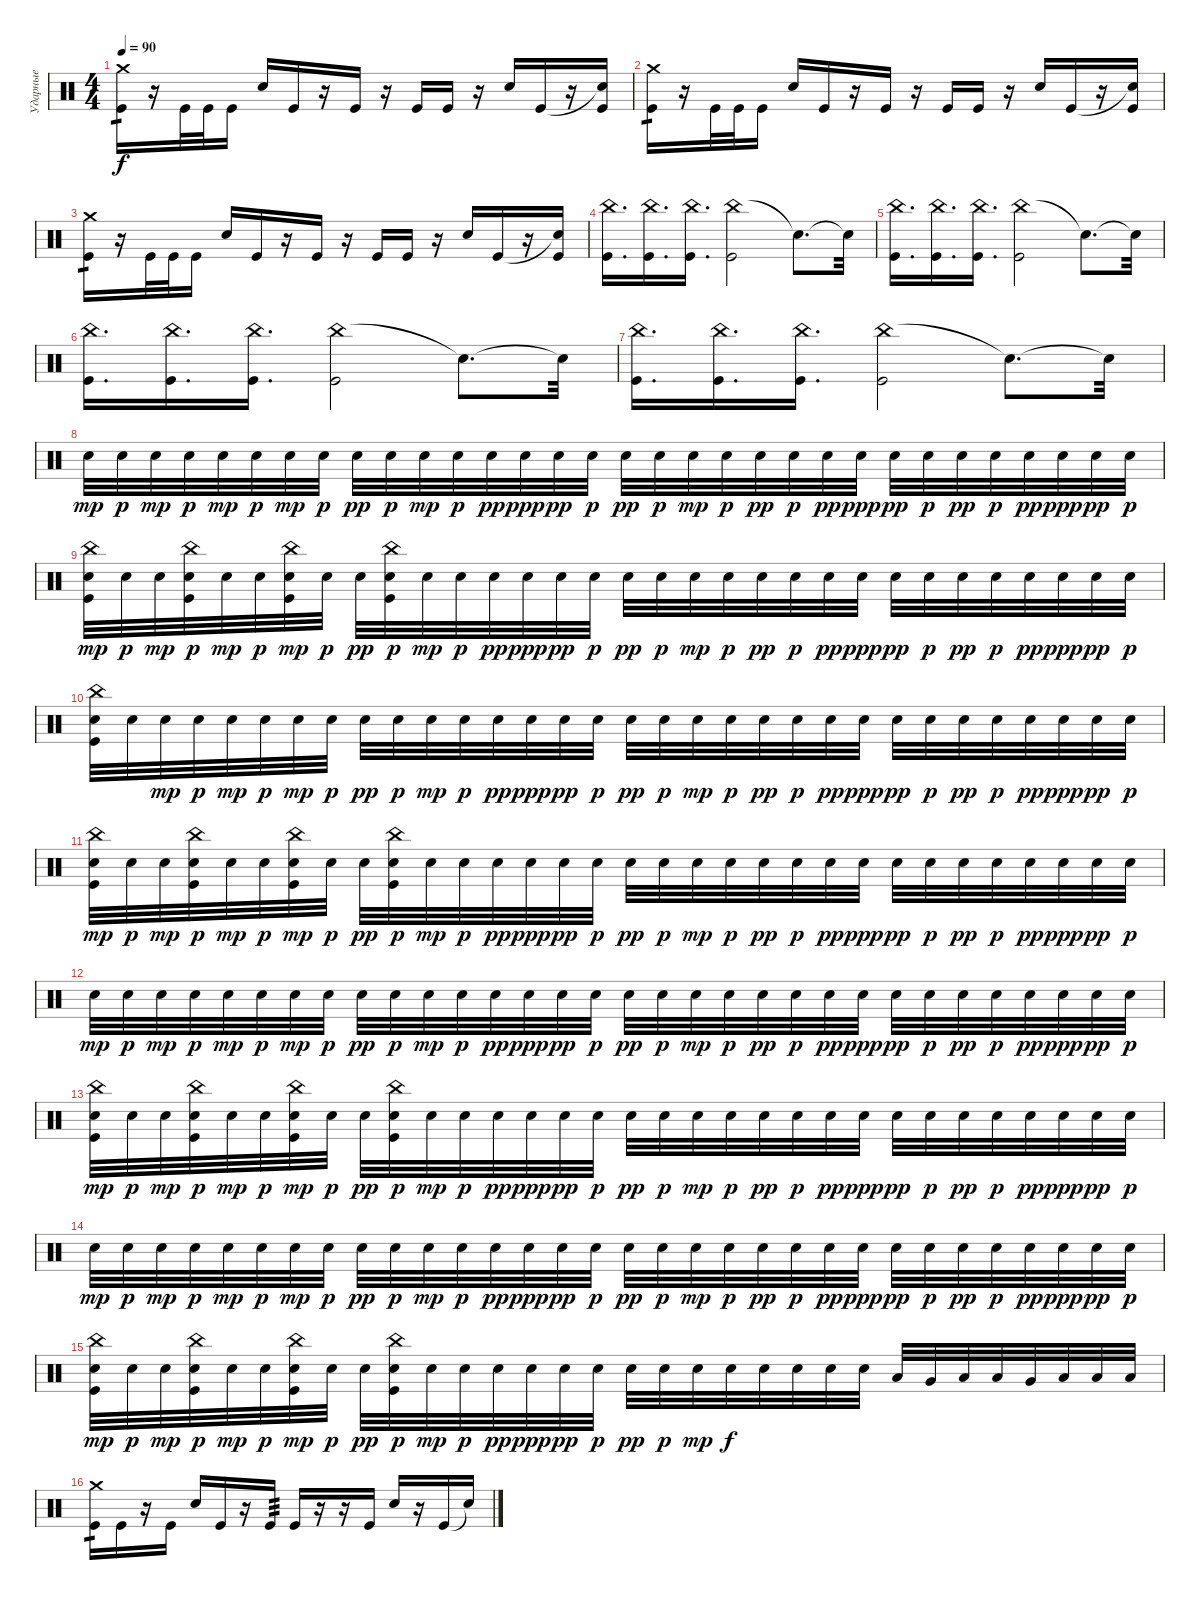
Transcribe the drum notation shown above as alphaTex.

\track ("Ударные" "Ударные") {instrument percussion}
\staff {score}
\articulation defaults
\ts (4 4)
\tempo 90
\clef neutral
\ks c
("Crash medium (hit)" "Kick (hit)").16{tp 1 dy f} r.16 "Kick (hit)".32 "Kick (hit)".32 "Kick (hit)".16 "Electric Snare (hit)".16 "Kick (hit)".16 r.16 "Kick (hit)".16 r.16 "Kick (hit)".16 "Kick (hit)".16 r.16 "Electric Snare (hit)".16 "Kick (hit)".16 r.16 ("Snare (hit)"{t} "Kick (hit)").16 |
("Crash medium (hit)" "Kick (hit)").16{tp 1} r.16 "Kick (hit)".32 "Kick (hit)".32 "Kick (hit)".16 "Electric Snare (hit)".16 "Kick (hit)".16 r.16 "Kick (hit)".16 r.16 "Kick (hit)".16 "Kick (hit)".16 r.16 "Electric Snare (hit)".16 "Kick (hit)".16 r.16 ("Snare (hit)"{t} "Kick (hit)").16 |
("Crash medium (hit)" "Kick (hit)").16{tp 1} r.16 "Kick (hit)".32 "Kick (hit)".32 "Kick (hit)".16 "Electric Snare (hit)".16 "Kick (hit)".16 r.16 "Kick (hit)".16 r.16 "Kick (hit)".16 "Kick (hit)".16 r.16 "Electric Snare (hit)".16 "Kick (hit)".16 r.16 ("Snare (hit)"{t} "Kick (hit)").16 |
("China (hit)" "Kick (hit)").16{d} ("China (hit)" "Kick (hit)").16{d} ("China (hit)" "Kick (hit)").16{d} ("China (hit)" "Kick (hit)").2 "Snare (hit)"{t}.8{d} "Snare (hit)"{t}.32 |
("China (hit)" "Kick (hit)").16{d} ("China (hit)" "Kick (hit)").16{d} ("China (hit)" "Kick (hit)").16{d} ("China (hit)" "Kick (hit)").2 "Snare (hit)"{t}.8{d} "Snare (hit)"{t}.32 |
("China (hit)" "Kick (hit)").16{d} ("China (hit)" "Kick (hit)").16{d} ("China (hit)" "Kick (hit)").16{d} ("China (hit)" "Kick (hit)").2 "Snare (hit)"{t}.8{d} "Snare (hit)"{t}.32 |
("China (hit)" "Kick (hit)").16{d} ("China (hit)" "Kick (hit)").16{d} ("China (hit)" "Kick (hit)").16{d} ("China (hit)" "Kick (hit)").2 "Snare (hit)"{t}.8{d} "Snare (hit)"{t}.32 |
"Electric Snare (hit)".32{dy mp} "Electric Snare (hit)".32{dy p} "Electric Snare (hit)".32{dy mp} "Electric Snare (hit)".32{dy p} "Electric Snare (hit)".32{dy mp} "Electric Snare (hit)".32{dy p} "Electric Snare (hit)".32{dy mp} "Electric Snare (hit)".32{dy p} "Electric Snare (hit)".32{dy pp} "Electric Snare (hit)".32{dy p} "Electric Snare (hit)".32{dy mp} "Electric Snare (hit)".32{dy p} "Electric Snare (hit)".32{dy pp} "Electric Snare (hit)".32{dy ppp} "Electric Snare (hit)".32{dy pp} "Electric Snare (hit)".32{dy p} "Electric Snare (hit)".32{dy pp} "Electric Snare (hit)".32{dy p} "Electric Snare (hit)".32{dy mp} "Electric Snare (hit)".32{dy p} "Electric Snare (hit)".32{dy pp} "Electric Snare (hit)".32{dy p} "Electric Snare (hit)".32{dy pp} "Electric Snare (hit)".32{dy ppp} "Electric Snare (hit)".32{dy pp} "Electric Snare (hit)".32{dy p} "Electric Snare (hit)".32{dy pp} "Electric Snare (hit)".32{dy p} "Electric Snare (hit)".32{dy pp} "Electric Snare (hit)".32{dy ppp} "Electric Snare (hit)".32{dy pp} "Electric Snare (hit)".32{dy p} |
("China (hit)" "Electric Snare (hit)" "Kick (hit)").32{dy mp} "Electric Snare (hit)".32{dy p} "Electric Snare (hit)".32{dy mp} ("China (hit)" "Electric Snare (hit)" "Kick (hit)").32{dy p} "Electric Snare (hit)".32{dy mp} "Electric Snare (hit)".32{dy p} ("China (hit)" "Electric Snare (hit)" "Kick (hit)").32{dy mp} "Electric Snare (hit)".32{dy p} "Electric Snare (hit)".32{dy pp} ("China (hit)" "Electric Snare (hit)" "Kick (hit)").32{dy p} "Electric Snare (hit)".32{dy mp} "Electric Snare (hit)".32{dy p} "Electric Snare (hit)".32{dy pp} "Electric Snare (hit)".32{dy ppp} "Electric Snare (hit)".32{dy pp} "Electric Snare (hit)".32{dy p} "Electric Snare (hit)".32{dy pp} "Electric Snare (hit)".32{dy p} "Electric Snare (hit)".32{dy mp} "Electric Snare (hit)".32{dy p} "Electric Snare (hit)".32{dy pp} "Electric Snare (hit)".32{dy p} "Electric Snare (hit)".32{dy pp} "Electric Snare (hit)".32{dy ppp} "Electric Snare (hit)".32{dy pp} "Electric Snare (hit)".32{dy p} "Electric Snare (hit)".32{dy pp} "Electric Snare (hit)".32{dy p} "Electric Snare (hit)".32{dy pp} "Electric Snare (hit)".32{dy ppp} "Electric Snare (hit)".32{dy pp} "Electric Snare (hit)".32{dy p} |
("China (hit)" "Electric Snare (hit)" "Kick (hit)").32 "Electric Snare (hit)".32 "Electric Snare (hit)".32{dy mp} "Electric Snare (hit)".32{dy p} "Electric Snare (hit)".32{dy mp} "Electric Snare (hit)".32{dy p} "Electric Snare (hit)".32{dy mp} "Electric Snare (hit)".32{dy p} "Electric Snare (hit)".32{dy pp} "Electric Snare (hit)".32{dy p} "Electric Snare (hit)".32{dy mp} "Electric Snare (hit)".32{dy p} "Electric Snare (hit)".32{dy pp} "Electric Snare (hit)".32{dy ppp} "Electric Snare (hit)".32{dy pp} "Electric Snare (hit)".32{dy p} "Electric Snare (hit)".32{dy pp} "Electric Snare (hit)".32{dy p} "Electric Snare (hit)".32{dy mp} "Electric Snare (hit)".32{dy p} "Electric Snare (hit)".32{dy pp} "Electric Snare (hit)".32{dy p} "Electric Snare (hit)".32{dy pp} "Electric Snare (hit)".32{dy ppp} "Electric Snare (hit)".32{dy pp} "Electric Snare (hit)".32{dy p} "Electric Snare (hit)".32{dy pp} "Electric Snare (hit)".32{dy p} "Electric Snare (hit)".32{dy pp} "Electric Snare (hit)".32{dy ppp} "Electric Snare (hit)".32{dy pp} "Electric Snare (hit)".32{dy p} |
("China (hit)" "Electric Snare (hit)" "Kick (hit)").32{dy mp} "Electric Snare (hit)".32{dy p} "Electric Snare (hit)".32{dy mp} ("China (hit)" "Electric Snare (hit)" "Kick (hit)").32{dy p} "Electric Snare (hit)".32{dy mp} "Electric Snare (hit)".32{dy p} ("China (hit)" "Electric Snare (hit)" "Kick (hit)").32{dy mp} "Electric Snare (hit)".32{dy p} "Electric Snare (hit)".32{dy pp} ("China (hit)" "Electric Snare (hit)" "Kick (hit)").32{dy p} "Electric Snare (hit)".32{dy mp} "Electric Snare (hit)".32{dy p} "Electric Snare (hit)".32{dy pp} "Electric Snare (hit)".32{dy ppp} "Electric Snare (hit)".32{dy pp} "Electric Snare (hit)".32{dy p} "Electric Snare (hit)".32{dy pp} "Electric Snare (hit)".32{dy p} "Electric Snare (hit)".32{dy mp} "Electric Snare (hit)".32{dy p} "Electric Snare (hit)".32{dy pp} "Electric Snare (hit)".32{dy p} "Electric Snare (hit)".32{dy pp} "Electric Snare (hit)".32{dy ppp} "Electric Snare (hit)".32{dy pp} "Electric Snare (hit)".32{dy p} "Electric Snare (hit)".32{dy pp} "Electric Snare (hit)".32{dy p} "Electric Snare (hit)".32{dy pp} "Electric Snare (hit)".32{dy ppp} "Electric Snare (hit)".32{dy pp} "Electric Snare (hit)".32{dy p} |
"Electric Snare (hit)".32{dy mp} "Electric Snare (hit)".32{dy p} "Electric Snare (hit)".32{dy mp} "Electric Snare (hit)".32{dy p} "Electric Snare (hit)".32{dy mp} "Electric Snare (hit)".32{dy p} "Electric Snare (hit)".32{dy mp} "Electric Snare (hit)".32{dy p} "Electric Snare (hit)".32{dy pp} "Electric Snare (hit)".32{dy p} "Electric Snare (hit)".32{dy mp} "Electric Snare (hit)".32{dy p} "Electric Snare (hit)".32{dy pp} "Electric Snare (hit)".32{dy ppp} "Electric Snare (hit)".32{dy pp} "Electric Snare (hit)".32{dy p} "Electric Snare (hit)".32{dy pp} "Electric Snare (hit)".32{dy p} "Electric Snare (hit)".32{dy mp} "Electric Snare (hit)".32{dy p} "Electric Snare (hit)".32{dy pp} "Electric Snare (hit)".32{dy p} "Electric Snare (hit)".32{dy pp} "Electric Snare (hit)".32{dy ppp} "Electric Snare (hit)".32{dy pp} "Electric Snare (hit)".32{dy p} "Electric Snare (hit)".32{dy pp} "Electric Snare (hit)".32{dy p} "Electric Snare (hit)".32{dy pp} "Electric Snare (hit)".32{dy ppp} "Electric Snare (hit)".32{dy pp} "Electric Snare (hit)".32{dy p} |
("China (hit)" "Electric Snare (hit)" "Kick (hit)").32{dy mp} "Electric Snare (hit)".32{dy p} "Electric Snare (hit)".32{dy mp} ("China (hit)" "Electric Snare (hit)" "Kick (hit)").32{dy p} "Electric Snare (hit)".32{dy mp} "Electric Snare (hit)".32{dy p} ("China (hit)" "Electric Snare (hit)" "Kick (hit)").32{dy mp} "Electric Snare (hit)".32{dy p} "Electric Snare (hit)".32{dy pp} ("China (hit)" "Electric Snare (hit)" "Kick (hit)").32{dy p} "Electric Snare (hit)".32{dy mp} "Electric Snare (hit)".32{dy p} "Electric Snare (hit)".32{dy pp} "Electric Snare (hit)".32{dy ppp} "Electric Snare (hit)".32{dy pp} "Electric Snare (hit)".32{dy p} "Electric Snare (hit)".32{dy pp} "Electric Snare (hit)".32{dy p} "Electric Snare (hit)".32{dy mp} "Electric Snare (hit)".32{dy p} "Electric Snare (hit)".32{dy pp} "Electric Snare (hit)".32{dy p} "Electric Snare (hit)".32{dy pp} "Electric Snare (hit)".32{dy ppp} "Electric Snare (hit)".32{dy pp} "Electric Snare (hit)".32{dy p} "Electric Snare (hit)".32{dy pp} "Electric Snare (hit)".32{dy p} "Electric Snare (hit)".32{dy pp} "Electric Snare (hit)".32{dy ppp} "Electric Snare (hit)".32{dy pp} "Electric Snare (hit)".32{dy p} |
"Electric Snare (hit)".32{dy mp} "Electric Snare (hit)".32{dy p} "Electric Snare (hit)".32{dy mp} "Electric Snare (hit)".32{dy p} "Electric Snare (hit)".32{dy mp} "Electric Snare (hit)".32{dy p} "Electric Snare (hit)".32{dy mp} "Electric Snare (hit)".32{dy p} "Electric Snare (hit)".32{dy pp} "Electric Snare (hit)".32{dy p} "Electric Snare (hit)".32{dy mp} "Electric Snare (hit)".32{dy p} "Electric Snare (hit)".32{dy pp} "Electric Snare (hit)".32{dy ppp} "Electric Snare (hit)".32{dy pp} "Electric Snare (hit)".32{dy p} "Electric Snare (hit)".32{dy pp} "Electric Snare (hit)".32{dy p} "Electric Snare (hit)".32{dy mp} "Electric Snare (hit)".32{dy p} "Electric Snare (hit)".32{dy pp} "Electric Snare (hit)".32{dy p} "Electric Snare (hit)".32{dy pp} "Electric Snare (hit)".32{dy ppp} "Electric Snare (hit)".32{dy pp} "Electric Snare (hit)".32{dy p} "Electric Snare (hit)".32{dy pp} "Electric Snare (hit)".32{dy p} "Electric Snare (hit)".32{dy pp} "Electric Snare (hit)".32{dy ppp} "Electric Snare (hit)".32{dy pp} "Electric Snare (hit)".32{dy p} |
("China (hit)" "Electric Snare (hit)" "Kick (hit)").32{dy mp} "Electric Snare (hit)".32{dy p} "Electric Snare (hit)".32{dy mp} ("China (hit)" "Electric Snare (hit)" "Kick (hit)").32{dy p} "Electric Snare (hit)".32{dy mp} "Electric Snare (hit)".32{dy p} ("China (hit)" "Electric Snare (hit)" "Kick (hit)").32{dy mp} "Electric Snare (hit)".32{dy p} "Electric Snare (hit)".32{dy pp} ("China (hit)" "Electric Snare (hit)" "Kick (hit)").32{dy p} "Electric Snare (hit)".32{dy mp} "Electric Snare (hit)".32{dy p} "Electric Snare (hit)".32{dy pp} "Electric Snare (hit)".32{dy ppp} "Electric Snare (hit)".32{dy pp} "Electric Snare (hit)".32{dy p} "Electric Snare (hit)".32{dy pp} "Electric Snare (hit)".32{dy p} "Electric Snare (hit)".32{dy mp} "Electric Snare (hit)".32{dy f} "Electric Snare (hit)".32 "Electric Snare (hit)".32 "Electric Snare (hit)".32 "Electric Snare (hit)".32 "Low Tom (hit)".32 "Very Low Tom (hit)".32 "Low Floor Tom (hit)".32 "Low Tom (hit)".32 "Very Low Tom (hit)".32 "Low Floor Tom (hit)".32 "Low Floor Tom (hit)".32 "Low Floor Tom (hit)".32 |
("Crash medium (hit)" "Kick (hit)").16{tp 1} "Kick (hit)".16 r.16 "Kick (hit)".16 "Electric Snare (hit)".16 "Kick (hit)".16 r.16 "Kick (hit)".16{tp 3} "Kick (hit)".16 r.16 r.16 "Kick (hit)".16 "Electric Snare (hit)".16 r.16 "Kick (hit)".16 "Snare (hit)"{t}.16
